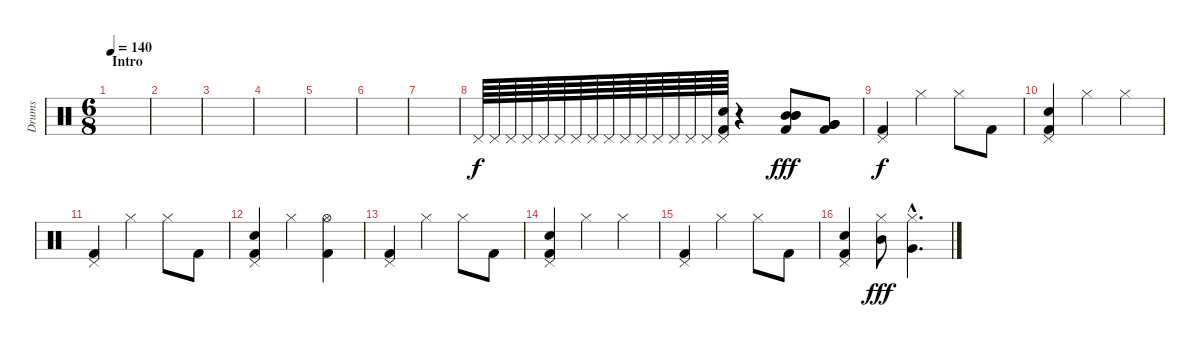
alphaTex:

\track ("Drums" "Drums") {instrument percussion}
\staff {score}
\articulation defaults
\ts (6 8)
\section ("" "Intro")
\tempo 140
\clef neutral
\ks c
|
|
|
|
|
|
|
"Pedal Hi-Hat (hit)".64 "Pedal Hi-Hat (hit)".64 "Pedal Hi-Hat (hit)".64 "Pedal Hi-Hat (hit)".64 "Pedal Hi-Hat (hit)".64 "Pedal Hi-Hat (hit)".64 "Pedal Hi-Hat (hit)".64 "Pedal Hi-Hat (hit)".64 "Pedal Hi-Hat (hit)".64 "Pedal Hi-Hat (hit)".64 "Pedal Hi-Hat (hit)".64 "Pedal Hi-Hat (hit)".64 "Pedal Hi-Hat (hit)".64 "Pedal Hi-Hat (hit)".64 "Pedal Hi-Hat (hit)".64 ("Snare (hit) 2" "Kick (hit) 2" "Pedal Hi-Hat (hit)").64 r.4 ("Mid Tom (hit)" "Mid Tom (hit)" "Kick (hit) 2" "Mid Tom (hit)").8{dy fff} ("Very Low Tom (hit)" "Very Low Tom (hit)" "Kick (hit) 2" "Very Low Tom (hit)").8 |
("Kick (hit) 2" "Pedal Hi-Hat (hit)").4{dy f} "Hi-Hat (closed)".4 "Hi-Hat (closed)".8 "Kick (hit) 2".8 |
("Electric Snare (hit)" "Kick (hit) 2" "Pedal Hi-Hat (hit)").4 "Hi-Hat (closed)".4 "Hi-Hat (closed)".4 |
("Kick (hit) 2" "Pedal Hi-Hat (hit)").4 "Hi-Hat (closed)".4 "Hi-Hat (closed)".8 "Kick (hit) 2".8 |
("Electric Snare (hit)" "Kick (hit) 2" "Pedal Hi-Hat (hit)").4 "Hi-Hat (closed)".4 ("Kick (hit) 2" "Hi-Hat (open)").4 |
("Kick (hit) 2" "Pedal Hi-Hat (hit)").4 "Hi-Hat (closed)".4 "Hi-Hat (closed)".8 "Kick (hit) 2".8 |
("Electric Snare (hit)" "Kick (hit) 2" "Pedal Hi-Hat (hit)").4 "Hi-Hat (closed)".4 "Hi-Hat (closed)".4 |
("Kick (hit) 2" "Pedal Hi-Hat (hit)").4 "Hi-Hat (closed)".4 "Hi-Hat (closed)".8 "Kick (hit) 2".8 |
("Pedal Hi-Hat (hit)" "Electric Snare (hit)" "Kick (hit) 2").4 ("Mid Tom (hit)" "Hi-Hat (closed)").8{dy fff} ("Very Low Tom (hit)"{hac} "Hi-Hat (closed)"{hac}).4{d}
